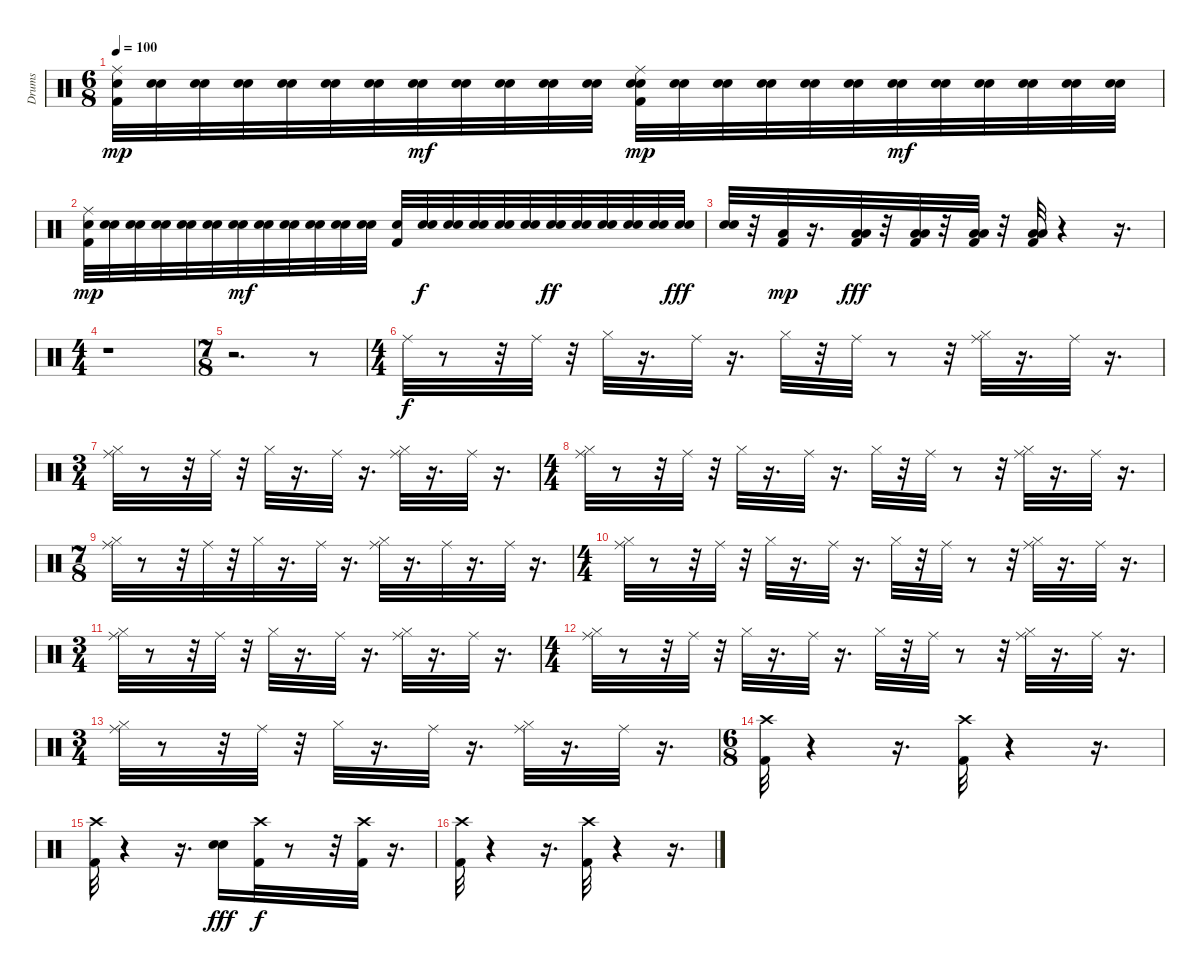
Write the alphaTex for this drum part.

\track ("Drums               " "Drums     ") {instrument percussion}
\staff {score}
\articulation defaults
\ts (6 8)
\tempo 100
\clef neutral
\ks c
("Ride (middle)" "Kick (hit) 2" "Electric Snare (hit)").32{dy mp} ("Electric Snare (hit)" "Electric Snare (hit)").32 ("Electric Snare (hit)" "Electric Snare (hit)").32 ("Electric Snare (hit)" "Electric Snare (hit)").32 ("Electric Snare (hit)" "Electric Snare (hit)").32 ("Electric Snare (hit)" "Electric Snare (hit)").32 ("Electric Snare (hit)" "Electric Snare (hit)").32 ("Electric Snare (hit)" "Electric Snare (hit)").32{dy mf} ("Electric Snare (hit)" "Electric Snare (hit)").32 ("Electric Snare (hit)" "Electric Snare (hit)").32 ("Electric Snare (hit)" "Electric Snare (hit)").32 ("Electric Snare (hit)" "Electric Snare (hit)").32 ("Ride (middle)" "Kick (hit) 2" "Electric Snare (hit)" "Electric Snare (hit)").32{dy mp} ("Electric Snare (hit)" "Electric Snare (hit)").32 ("Electric Snare (hit)" "Electric Snare (hit)").32 ("Electric Snare (hit)" "Electric Snare (hit)").32 ("Electric Snare (hit)" "Electric Snare (hit)").32 ("Electric Snare (hit)" "Electric Snare (hit)").32 ("Electric Snare (hit)" "Electric Snare (hit)").32{dy mf} ("Electric Snare (hit)" "Electric Snare (hit)").32 ("Electric Snare (hit)" "Electric Snare (hit)").32 ("Electric Snare (hit)" "Electric Snare (hit)").32 ("Electric Snare (hit)" "Electric Snare (hit)").32 ("Electric Snare (hit)" "Electric Snare (hit)").32 |
("Ride (middle)" "Kick (hit) 2" "Electric Snare (hit)").32{dy mp} ("Electric Snare (hit)" "Electric Snare (hit)").32 ("Electric Snare (hit)" "Electric Snare (hit)").32 ("Electric Snare (hit)" "Electric Snare (hit)").32 ("Electric Snare (hit)" "Electric Snare (hit)").32 ("Electric Snare (hit)" "Electric Snare (hit)").32 ("Electric Snare (hit)" "Electric Snare (hit)").32{dy mf} ("Electric Snare (hit)" "Electric Snare (hit)").32 ("Electric Snare (hit)" "Electric Snare (hit)").32 ("Electric Snare (hit)" "Electric Snare (hit)").32 ("Electric Snare (hit)" "Electric Snare (hit)").32 ("Electric Snare (hit)" "Electric Snare (hit)").32 ("Kick (hit) 2" "Electric Snare (hit)").32 ("Electric Snare (hit)" "Electric Snare (hit)").32{dy f} ("Electric Snare (hit)" "Electric Snare (hit)").32 ("Electric Snare (hit)" "Electric Snare (hit)").32 ("Electric Snare (hit)" "Electric Snare (hit)").32 ("Electric Snare (hit)" "Electric Snare (hit)").32 ("Electric Snare (hit)" "Electric Snare (hit)").32{dy ff} ("Electric Snare (hit)" "Electric Snare (hit)").32 ("Electric Snare (hit)" "Electric Snare (hit)").32 ("Electric Snare (hit)" "Electric Snare (hit)").32 ("Electric Snare (hit)" "Electric Snare (hit)").32 ("Electric Snare (hit)" "Electric Snare (hit)").32{dy fff} |
("Snare (hit) 2" "Electric Snare (hit)").32 r.32 ("Low Floor Tom (hit)" "Kick (hit) 2").32{dy mp} r.16{d} ("Low Tom (hit)" "Low Floor Tom (hit)" "Kick (hit) 2").32{dy fff} r.32 ("Low Tom (hit)" "Low Floor Tom (hit)" "Kick (hit) 2").32 r.32 ("Low Tom (hit)" "Low Floor Tom (hit)" "Kick (hit) 2").32 r.32 ("Low Tom (hit)" "Low Floor Tom (hit)" "Kick (hit) 2").32 r.4 r.16{d} |
\ts (4 4)
r.1 |
\ts (7 8)
r.2{d} r.8 |
\ts (4 4)
"Ride (middle)".32{dy f} r.8 r.32 "Ride (middle)".32 r.32 "Hi-Hat (closed)".32 r.16{d} "Ride (middle)".32 r.16{d} "Hi-Hat (closed)".32 r.32 "Ride (middle)".32 r.8 r.32 ("Hi-Hat (closed)" "Ride (middle)").32 r.16{d} "Ride (middle)".32 r.16{d} |
\ts (3 4)
("Hi-Hat (closed)" "Ride (middle)").32 r.8 r.32 "Ride (middle)".32 r.32 "Hi-Hat (closed)".32 r.16{d} "Ride (middle)".32 r.16{d} ("Hi-Hat (closed)" "Ride (middle)").32 r.16{d} "Ride (middle)".32 r.16{d} |
\ts (4 4)
("Hi-Hat (closed)" "Ride (middle)").32 r.8 r.32 "Ride (middle)".32 r.32 "Hi-Hat (closed)".32 r.16{d} "Ride (middle)".32 r.16{d} "Hi-Hat (closed)".32 r.32 "Ride (middle)".32 r.8 r.32 ("Hi-Hat (closed)" "Ride (middle)").32 r.16{d} "Ride (middle)".32 r.16{d} |
\ts (7 8)
("Hi-Hat (closed)" "Ride (middle)").32 r.8 r.32 "Ride (middle)".32 r.32 "Hi-Hat (closed)".32 r.16{d} "Ride (middle)".32 r.16{d} ("Hi-Hat (closed)" "Ride (middle)").32 r.16{d} "Ride (middle)".32 r.16{d} "Ride (middle)".32 r.16{d} |
\ts (4 4)
("Hi-Hat (closed)" "Ride (middle)").32 r.8 r.32 "Ride (middle)".32 r.32 "Hi-Hat (closed)".32 r.16{d} "Ride (middle)".32 r.16{d} "Hi-Hat (closed)".32 r.32 "Ride (middle)".32 r.8 r.32 ("Hi-Hat (closed)" "Ride (middle)").32 r.16{d} "Ride (middle)".32 r.16{d} |
\ts (3 4)
("Hi-Hat (closed)" "Ride (middle)").32 r.8 r.32 "Ride (middle)".32 r.32 "Hi-Hat (closed)".32 r.16{d} "Ride (middle)".32 r.16{d} ("Hi-Hat (closed)" "Ride (middle)").32 r.16{d} "Ride (middle)".32 r.16{d} |
\ts (4 4)
("Hi-Hat (closed)" "Ride (middle)").32 r.8 r.32 "Ride (middle)".32 r.32 "Hi-Hat (closed)".32 r.16{d} "Ride (middle)".32 r.16{d} "Hi-Hat (closed)".32 r.32 "Ride (middle)".32 r.8 r.32 ("Hi-Hat (closed)" "Ride (middle)").32 r.16{d} "Ride (middle)".32 r.16{d} |
\ts (3 4)
("Hi-Hat (closed)" "Ride (middle)").32 r.8 r.32 "Ride (middle)".32 r.32 "Hi-Hat (closed)".32 r.16{d} "Ride (middle)".32 r.16{d} ("Hi-Hat (closed)" "Ride (middle)").32 r.16{d} "Ride (middle)".32 r.16{d} |
\ts (6 8)
("Crash high (hit)" "Kick (hit) 2").32 r.4 r.16{d} ("Kick (hit) 2" "Crash high (hit)").32 r.4 r.16{d} |
("Kick (hit) 2" "Crash high (hit)").32 r.4 r.16{d} ("Electric Snare (hit)" "Electric Snare (hit)").16{dy fff} ("Crash high (hit)" "Kick (hit) 2").32{dy f} r.8 r.32 ("Kick (hit) 2" "Crash high (hit)").32 r.16{d} |
("Kick (hit) 2" "Crash high (hit)").32 r.4 r.16{d} ("Kick (hit) 2" "Crash high (hit)").32 r.4 r.16{d}
